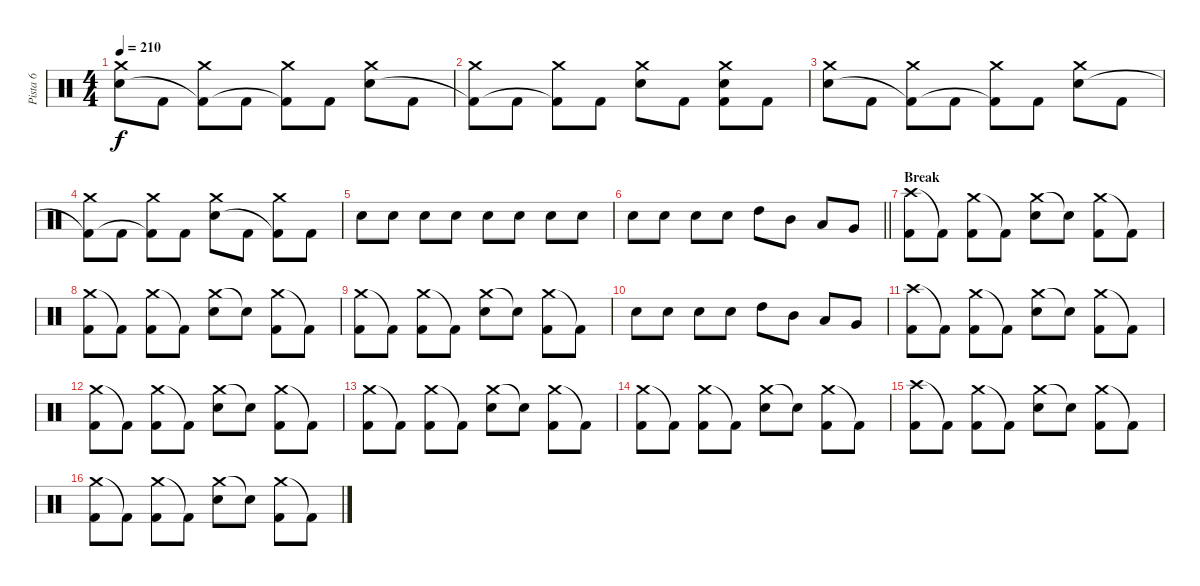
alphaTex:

\track ("Pista 6" "Pista 6") {instrument percussion}
\staff {score}
\articulation defaults
\ts (4 4)
\tempo 210
\clef neutral
\ks c
("Crash medium (hit)" "Electric Snare (hit)").8{dy f} "Kick (hit) 2".8 ("Crash medium (hit)" "Kick (hit) 2"{t}).8 "Kick (hit) 2".8 ("Crash medium (hit)" "Kick (hit) 2"{t}).8 "Kick (hit) 2".8 ("Crash medium (hit)" "Electric Snare (hit)").8 "Kick (hit) 2".8 |
("Crash medium (hit)" "Kick (hit) 2"{t}).8 "Kick (hit) 2".8 ("Crash medium (hit)" "Kick (hit) 2"{t}).8 "Kick (hit) 2".8 ("Crash medium (hit)" "Electric Snare (hit)").8 "Kick (hit) 2".8 ("Crash medium (hit)" "Electric Snare (hit)" "Kick (hit) 2").8 "Kick (hit) 2".8 |
("Crash medium (hit)" "Electric Snare (hit)").8 "Kick (hit) 2".8 ("Crash medium (hit)" "Kick (hit) 2"{t}).8 "Kick (hit) 2".8 ("Crash medium (hit)" "Kick (hit) 2"{t}).8 "Kick (hit) 2".8 ("Crash medium (hit)" "Electric Snare (hit)").8 "Kick (hit) 2".8 |
("Crash medium (hit)" "Kick (hit) 2"{t}).8 "Kick (hit) 2".8 ("Crash medium (hit)" "Kick (hit) 2"{t}).8 "Kick (hit) 2".8 ("Crash medium (hit)" "Electric Snare (hit)").8 "Kick (hit) 2".8 ("Crash medium (hit)" "Kick (hit) 2"{t}).8 "Kick (hit) 2".8 |
"Electric Snare (hit)".8 "Electric Snare (hit)".8 "Electric Snare (hit)".8 "Electric Snare (hit)".8 "Electric Snare (hit)".8 "Electric Snare (hit)".8 "Electric Snare (hit)".8 "Electric Snare (hit)".8 |
\barLineRight lightlight "Electric Snare (hit)".8 "Electric Snare (hit)".8 "Electric Snare (hit)".8 "Electric Snare (hit)".8 "High Tom (hit)".8 "Mid Tom (hit)".8 "Low Tom (hit)".8 "Very Low Tom (hit)".8
|
\section ("" "Break")
("Crash high (hit)" "Kick (hit) 2").8 "Kick (hit) 2"{t}.8 ("Crash medium (hit)" "Kick (hit) 2").8 "Kick (hit) 2"{t}.8 ("Crash medium (hit)" "Electric Snare (hit)").8 "Electric Snare (hit)"{t}.8 ("Crash medium (hit)" "Kick (hit) 2").8 "Kick (hit) 2"{t}.8 |
("Crash medium (hit)" "Kick (hit) 2").8 "Kick (hit) 2"{t}.8 ("Crash medium (hit)" "Kick (hit) 2").8 "Kick (hit) 2"{t}.8 ("Crash medium (hit)" "Electric Snare (hit)").8 "Electric Snare (hit)"{t}.8 ("Crash medium (hit)" "Kick (hit) 2").8 "Kick (hit) 2"{t}.8 |
("Crash medium (hit)" "Kick (hit) 2").8 "Kick (hit) 2"{t}.8 ("Crash medium (hit)" "Kick (hit) 2").8 "Kick (hit) 2"{t}.8 ("Crash medium (hit)" "Electric Snare (hit)").8 "Electric Snare (hit)"{t}.8 ("Crash medium (hit)" "Kick (hit) 2").8 "Kick (hit) 2"{t}.8 |
"Electric Snare (hit)".8 "Electric Snare (hit)".8 "Electric Snare (hit)".8 "Electric Snare (hit)".8 "High Tom (hit)".8 "Mid Tom (hit)".8 "Low Tom (hit)".8 "Very Low Tom (hit)".8 |
("Crash high (hit)" "Kick (hit) 2").8 "Kick (hit) 2"{t}.8 ("Crash medium (hit)" "Kick (hit) 2").8 "Kick (hit) 2"{t}.8 ("Crash medium (hit)" "Electric Snare (hit)").8 "Electric Snare (hit)"{t}.8 ("Crash medium (hit)" "Kick (hit) 2").8 "Kick (hit) 2"{t}.8 |
("Crash medium (hit)" "Kick (hit) 2").8 "Kick (hit) 2"{t}.8 ("Crash medium (hit)" "Kick (hit) 2").8 "Kick (hit) 2"{t}.8 ("Crash medium (hit)" "Electric Snare (hit)").8 "Electric Snare (hit)"{t}.8 ("Crash medium (hit)" "Kick (hit) 2").8 "Kick (hit) 2"{t}.8 |
("Crash medium (hit)" "Kick (hit) 2").8 "Kick (hit) 2"{t}.8 ("Crash medium (hit)" "Kick (hit) 2").8 "Kick (hit) 2"{t}.8 ("Crash medium (hit)" "Electric Snare (hit)").8 "Electric Snare (hit)"{t}.8 ("Crash medium (hit)" "Kick (hit) 2").8 "Kick (hit) 2"{t}.8 |
("Crash medium (hit)" "Kick (hit) 2").8 "Kick (hit) 2"{t}.8 ("Crash medium (hit)" "Kick (hit) 2").8 "Kick (hit) 2"{t}.8 ("Crash medium (hit)" "Electric Snare (hit)").8 "Electric Snare (hit)"{t}.8 ("Crash medium (hit)" "Kick (hit) 2").8 "Kick (hit) 2"{t}.8 |
("Crash high (hit)" "Kick (hit) 2").8 "Kick (hit) 2"{t}.8 ("Crash medium (hit)" "Kick (hit) 2").8 "Kick (hit) 2"{t}.8 ("Crash medium (hit)" "Electric Snare (hit)").8 "Electric Snare (hit)"{t}.8 ("Crash medium (hit)" "Kick (hit) 2").8 "Kick (hit) 2"{t}.8 |
("Crash medium (hit)" "Kick (hit) 2").8 "Kick (hit) 2"{t}.8 ("Crash medium (hit)" "Kick (hit) 2").8 "Kick (hit) 2"{t}.8 ("Crash medium (hit)" "Electric Snare (hit)").8 "Electric Snare (hit)"{t}.8 ("Crash medium (hit)" "Kick (hit) 2").8 "Kick (hit) 2"{t}.8
